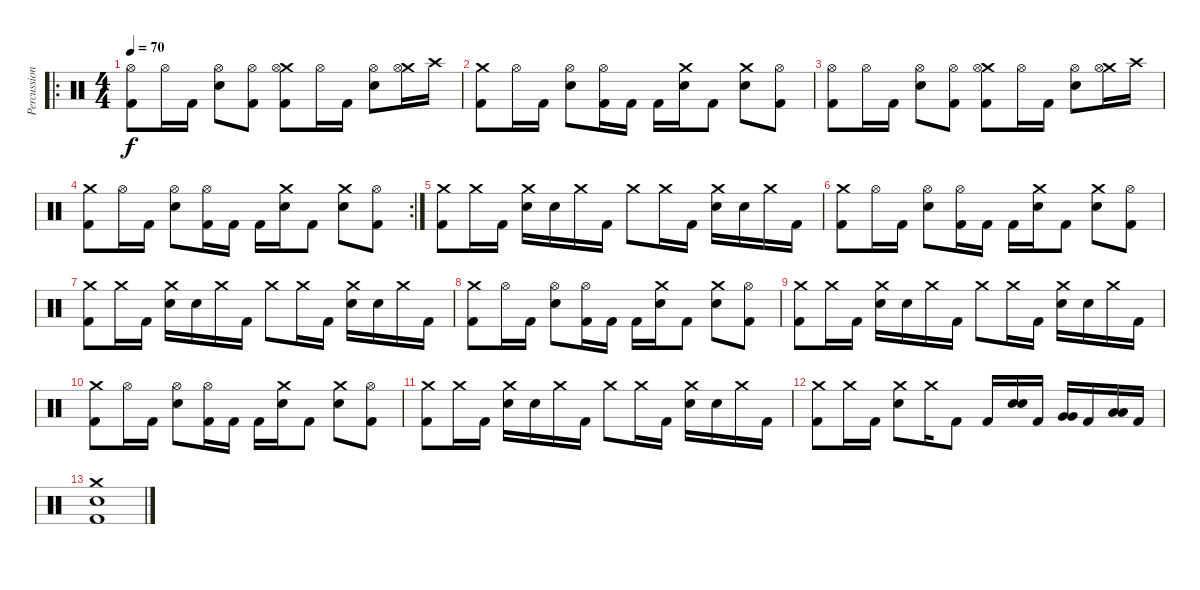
\track ("Percussion" "Percussion") {instrument percussion}
\staff {score}
\articulation defaults
\ro
\ts (4 4)
\tempo 70
\clef neutral
\ks c
("Hi-Hat (open)" "Kick (hit) 2").8{dy f} "Hi-Hat (open)".16 "Kick (hit) 2".16 ("Hi-Hat (open)" "Electric Snare (hit)").8 ("Hi-Hat (open)" "Kick (hit) 2").8 ("Crash medium (hit)" "Hi-Hat (open)" "Kick (hit) 2").8 "Hi-Hat (open)".16 "Kick (hit) 2".16 ("Hi-Hat (open)" "Electric Snare (hit)").8 ("Crash medium (hit)" "Hi-Hat (open)").16 "Crash high (hit)".16 |
("Crash medium (hit)" "Kick (hit) 2").8 "Hi-Hat (open)".16 "Kick (hit) 2".16 ("Hi-Hat (open)" "Electric Snare (hit)").8 ("Hi-Hat (open)" "Kick (hit) 2").16 "Kick (hit) 2".16 "Kick (hit) 2".16 ("Crash medium (hit)" "Electric Snare (hit)").16 "Kick (hit) 2".8 ("Crash medium (hit)" "Electric Snare (hit)").8 ("Hi-Hat (open)" "Kick (hit) 2").8 |
("Hi-Hat (open)" "Kick (hit) 2").8 "Hi-Hat (open)".16 "Kick (hit) 2".16 ("Hi-Hat (open)" "Electric Snare (hit)").8 ("Hi-Hat (open)" "Kick (hit) 2").8 ("Crash medium (hit)" "Hi-Hat (open)" "Kick (hit) 2").8 "Hi-Hat (open)".16 "Kick (hit) 2".16 ("Hi-Hat (open)" "Electric Snare (hit)").8 ("Crash medium (hit)" "Hi-Hat (open)").16 "Crash high (hit)".16 |
\rc 2
("Crash medium (hit)" "Kick (hit) 2").8 "Hi-Hat (open)".16 "Kick (hit) 2".16 ("Hi-Hat (open)" "Electric Snare (hit)").8 ("Hi-Hat (open)" "Kick (hit) 2").16 "Kick (hit) 2".16 "Kick (hit) 2".16 ("Crash medium (hit)" "Electric Snare (hit)").16 "Kick (hit) 2".8 ("Crash medium (hit)" "Electric Snare (hit)").8 ("Hi-Hat (open)" "Kick (hit) 2").8 |
("Crash medium (hit)" "Kick (hit) 2").8 "Crash medium (hit)".16 "Kick (hit) 2".16 ("Crash medium (hit)" "Electric Snare (hit)").16 "Electric Snare (hit)".16 "Crash medium (hit)".16 "Kick (hit) 2".16 "Crash medium (hit)".8 "Crash medium (hit)".16 "Kick (hit) 2".16 ("Crash medium (hit)" "Electric Snare (hit)").16 "Electric Snare (hit)".16 "Crash medium (hit)".16 "Kick (hit) 2".16 |
("Crash medium (hit)" "Kick (hit) 2").8 "Hi-Hat (open)".16 "Kick (hit) 2".16 ("Hi-Hat (open)" "Electric Snare (hit)").8 ("Hi-Hat (open)" "Kick (hit) 2").16 "Kick (hit) 2".16 "Kick (hit) 2".16 ("Crash medium (hit)" "Electric Snare (hit)").16 "Kick (hit) 2".8 ("Crash medium (hit)" "Electric Snare (hit)").8 ("Hi-Hat (open)" "Kick (hit) 2").8 |
("Crash medium (hit)" "Kick (hit) 2").8 "Crash medium (hit)".16 "Kick (hit) 2".16 ("Crash medium (hit)" "Electric Snare (hit)").16 "Electric Snare (hit)".16 "Crash medium (hit)".16 "Kick (hit) 2".16 "Crash medium (hit)".8 "Crash medium (hit)".16 "Kick (hit) 2".16 ("Crash medium (hit)" "Electric Snare (hit)").16 "Electric Snare (hit)".16 "Crash medium (hit)".16 "Kick (hit) 2".16 |
("Crash medium (hit)" "Kick (hit) 2").8 "Hi-Hat (open)".16 "Kick (hit) 2".16 ("Hi-Hat (open)" "Electric Snare (hit)").8 ("Hi-Hat (open)" "Kick (hit) 2").16 "Kick (hit) 2".16 "Kick (hit) 2".16 ("Crash medium (hit)" "Electric Snare (hit)").16 "Kick (hit) 2".8 ("Crash medium (hit)" "Electric Snare (hit)").8 ("Hi-Hat (open)" "Kick (hit) 2").8 |
("Crash medium (hit)" "Kick (hit) 2").8 "Crash medium (hit)".16 "Kick (hit) 2".16 ("Crash medium (hit)" "Electric Snare (hit)").16 "Electric Snare (hit)".16 "Crash medium (hit)".16 "Kick (hit) 2".16 "Crash medium (hit)".8 "Crash medium (hit)".16 "Kick (hit) 2".16 ("Crash medium (hit)" "Electric Snare (hit)").16 "Electric Snare (hit)".16 "Crash medium (hit)".16 "Kick (hit) 2".16 |
("Crash medium (hit)" "Kick (hit) 2").8 "Hi-Hat (open)".16 "Kick (hit) 2".16 ("Hi-Hat (open)" "Electric Snare (hit)").8 ("Hi-Hat (open)" "Kick (hit) 2").16 "Kick (hit) 2".16 "Kick (hit) 2".16 ("Crash medium (hit)" "Electric Snare (hit)").16 "Kick (hit) 2".8 ("Crash medium (hit)" "Electric Snare (hit)").8 ("Hi-Hat (open)" "Kick (hit) 2").8 |
("Crash medium (hit)" "Kick (hit) 2").8 "Crash medium (hit)".16 "Kick (hit) 2".16 ("Crash medium (hit)" "Electric Snare (hit)").16 "Electric Snare (hit)".16 "Crash medium (hit)".16 "Kick (hit) 2".16 "Crash medium (hit)".8 "Crash medium (hit)".16 "Kick (hit) 2".16 ("Crash medium (hit)" "Electric Snare (hit)").16 "Electric Snare (hit)".16 "Crash medium (hit)".16 "Kick (hit) 2".16 |
("Crash medium (hit)" "Kick (hit) 2").8 "Crash medium (hit)".16 "Kick (hit) 2".16 ("Crash medium (hit)" "Electric Snare (hit)").8 "Crash medium (hit)".16 "Kick (hit) 2".8 "Kick (hit) 2".16 ("Electric Snare (hit)" "Electric Snare (hit)").16 "Kick (hit) 2".16 ("Very Low Tom (hit)" "Very Low Tom (hit)").16 "Kick (hit) 2".16 ("Low Floor Tom (hit)" "Low Floor Tom (hit)").16 "Kick (hit) 2".16 |
("Crash medium (hit)" "Electric Snare (hit)" "Kick (hit) 2").1
